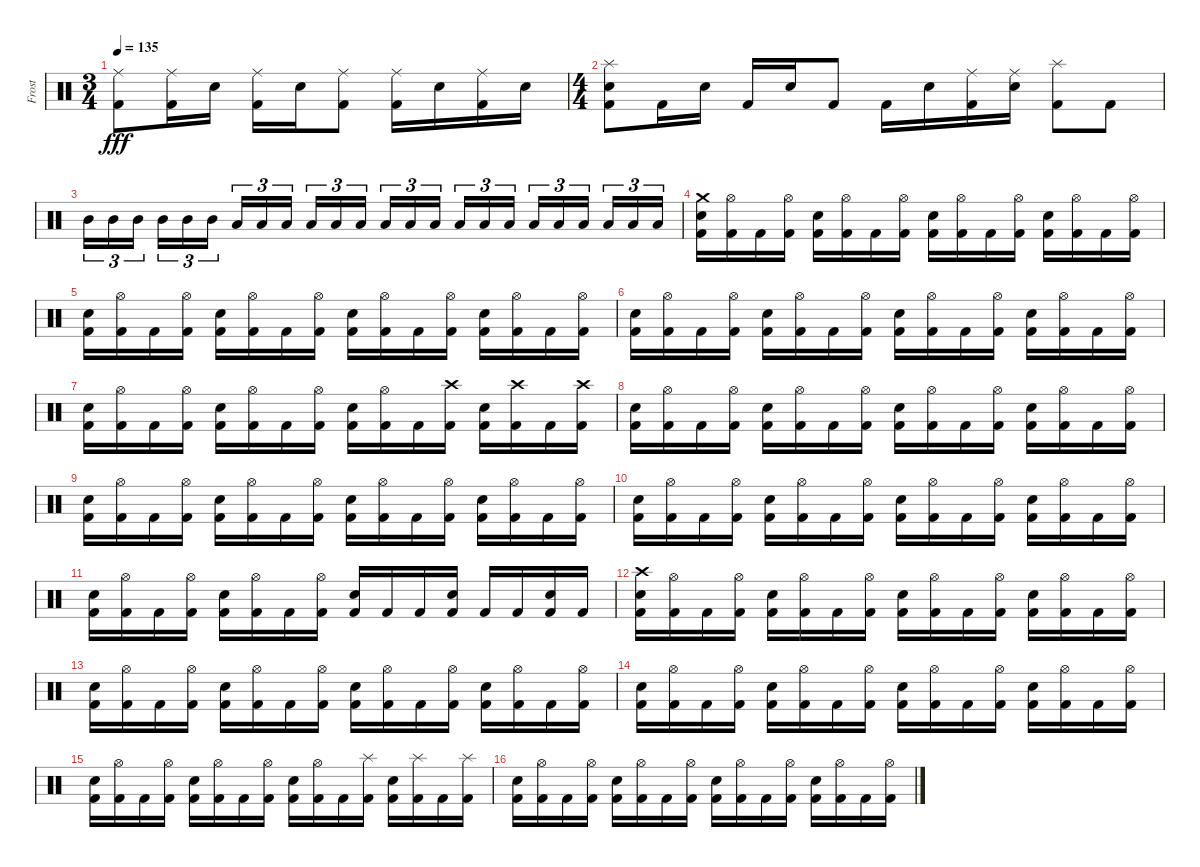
\track ("Frost" "Frost") {instrument percussion}
\staff {score}
\articulation defaults
\ts (3 4)
\tempo 135
\clef neutral
\ks c
("Ride (middle)" "Kick (hit) 2").8{dy fff} ("Ride (middle)" "Kick (hit) 2").16 "Electric Snare (hit)".16 ("Ride (middle)" "Kick (hit) 2").16 "Electric Snare (hit)".16 ("Ride (middle)" "Kick (hit) 2").8 ("Ride (middle)" "Kick (hit) 2").16 "Electric Snare (hit)".16 ("Ride (middle)" "Kick (hit) 2").16 "Electric Snare (hit)".16 |
\ts (4 4)
("Splash (hit)" "Electric Snare (hit)" "Kick (hit) 2").8 "Kick (hit) 2".16 "Electric Snare (hit)".16 "Kick (hit) 2".16 "Electric Snare (hit)".16 "Kick (hit) 2".8 "Kick (hit) 2".16 "Electric Snare (hit)".16 ("Ride (middle)" "Kick (hit) 2").16 ("Ride (middle)" "Electric Snare (hit)").16 ("Splash (hit)" "Kick (hit) 2").8 "Kick (hit) 2".8 |
"Mid Tom (hit)".16{tu (3 2)} "Mid Tom (hit)".16{tu (3 2)} "Mid Tom (hit)".16{tu (3 2) beam splitsecondary} "Mid Tom (hit)".16{tu (3 2)} "Mid Tom (hit)".16{tu (3 2)} "Mid Tom (hit)".16{tu (3 2)} "Low Tom (hit)".16{tu (3 2)} "Low Tom (hit)".16{tu (3 2)} "Low Tom (hit)".16{tu (3 2) beam splitsecondary} "Low Tom (hit)".16{tu (3 2)} "Low Tom (hit)".16{tu (3 2)} "Low Tom (hit)".16{tu (3 2)} "Low Floor Tom (hit)".16{tu (3 2)} "Low Floor Tom (hit)".16{tu (3 2)} "Low Floor Tom (hit)".16{tu (3 2) beam splitsecondary} "Low Floor Tom (hit)".16{tu (3 2)} "Low Floor Tom (hit)".16{tu (3 2)} "Low Floor Tom (hit)".16{tu (3 2)} "Low Floor Tom (hit)".16{tu (3 2)} "Low Floor Tom (hit)".16{tu (3 2)} "Low Floor Tom (hit)".16{tu (3 2) beam splitsecondary} "Low Floor Tom (hit)".16{tu (3 2)} "Low Floor Tom (hit)".16{tu (3 2)} "Low Floor Tom (hit)".16{tu (3 2)} |
("Crash medium (hit)" "Electric Snare (hit)" "Kick (hit) 2").16 ("Hi-Hat (open)" "Kick (hit) 2").16 "Kick (hit) 2".16 ("Hi-Hat (open)" "Kick (hit) 2").16 ("Electric Snare (hit)" "Kick (hit) 2").16 ("Hi-Hat (open)" "Kick (hit) 2").16 "Kick (hit) 2".16 ("Hi-Hat (open)" "Kick (hit) 2").16 ("Electric Snare (hit)" "Kick (hit) 2").16 ("Hi-Hat (open)" "Kick (hit) 2").16 "Kick (hit) 2".16 ("Hi-Hat (open)" "Kick (hit) 2").16 ("Electric Snare (hit)" "Kick (hit) 2").16 ("Hi-Hat (open)" "Kick (hit) 2").16 "Kick (hit) 2".16 ("Hi-Hat (open)" "Kick (hit) 2").16 |
("Electric Snare (hit)" "Kick (hit) 2").16 ("Hi-Hat (open)" "Kick (hit) 2").16 "Kick (hit) 2".16 ("Hi-Hat (open)" "Kick (hit) 2").16 ("Electric Snare (hit)" "Kick (hit) 2").16 ("Hi-Hat (open)" "Kick (hit) 2").16 "Kick (hit) 2".16 ("Hi-Hat (open)" "Kick (hit) 2").16 ("Electric Snare (hit)" "Kick (hit) 2").16 ("Hi-Hat (open)" "Kick (hit) 2").16 "Kick (hit) 2".16 ("Hi-Hat (open)" "Kick (hit) 2").16 ("Electric Snare (hit)" "Kick (hit) 2").16 ("Hi-Hat (open)" "Kick (hit) 2").16 "Kick (hit) 2".16 ("Hi-Hat (open)" "Kick (hit) 2").16 |
("Electric Snare (hit)" "Kick (hit) 2").16 ("Hi-Hat (open)" "Kick (hit) 2").16 "Kick (hit) 2".16 ("Hi-Hat (open)" "Kick (hit) 2").16 ("Electric Snare (hit)" "Kick (hit) 2").16 ("Hi-Hat (open)" "Kick (hit) 2").16 "Kick (hit) 2".16 ("Hi-Hat (open)" "Kick (hit) 2").16 ("Electric Snare (hit)" "Kick (hit) 2").16 ("Hi-Hat (open)" "Kick (hit) 2").16 "Kick (hit) 2".16 ("Hi-Hat (open)" "Kick (hit) 2").16 ("Electric Snare (hit)" "Kick (hit) 2").16 ("Hi-Hat (open)" "Kick (hit) 2").16 "Kick (hit) 2".16 ("Hi-Hat (open)" "Kick (hit) 2").16 |
("Electric Snare (hit)" "Kick (hit) 2").16 ("Hi-Hat (open)" "Kick (hit) 2").16 "Kick (hit) 2".16 ("Hi-Hat (open)" "Kick (hit) 2").16 ("Electric Snare (hit)" "Kick (hit) 2").16 ("Hi-Hat (open)" "Kick (hit) 2").16 "Kick (hit) 2".16 ("Hi-Hat (open)" "Kick (hit) 2").16 ("Electric Snare (hit)" "Kick (hit) 2").16 ("Hi-Hat (open)" "Kick (hit) 2").16 "Kick (hit) 2".16 ("Crash high (hit)" "Kick (hit) 2").16 ("Electric Snare (hit)" "Kick (hit) 2").16 ("Crash high (hit)" "Kick (hit) 2").16 "Kick (hit) 2".16 ("Crash high (hit)" "Kick (hit) 2").16 |
("Electric Snare (hit)" "Kick (hit) 2").16 ("Hi-Hat (open)" "Kick (hit) 2").16 "Kick (hit) 2".16 ("Hi-Hat (open)" "Kick (hit) 2").16 ("Electric Snare (hit)" "Kick (hit) 2").16 ("Hi-Hat (open)" "Kick (hit) 2").16 "Kick (hit) 2".16 ("Hi-Hat (open)" "Kick (hit) 2").16 ("Electric Snare (hit)" "Kick (hit) 2").16 ("Hi-Hat (open)" "Kick (hit) 2").16 "Kick (hit) 2".16 ("Hi-Hat (open)" "Kick (hit) 2").16 ("Electric Snare (hit)" "Kick (hit) 2").16 ("Hi-Hat (open)" "Kick (hit) 2").16 "Kick (hit) 2".16 ("Hi-Hat (open)" "Kick (hit) 2").16 |
("Electric Snare (hit)" "Kick (hit) 2").16 ("Hi-Hat (open)" "Kick (hit) 2").16 "Kick (hit) 2".16 ("Hi-Hat (open)" "Kick (hit) 2").16 ("Electric Snare (hit)" "Kick (hit) 2").16 ("Hi-Hat (open)" "Kick (hit) 2").16 "Kick (hit) 2".16 ("Hi-Hat (open)" "Kick (hit) 2").16 ("Electric Snare (hit)" "Kick (hit) 2").16 ("Hi-Hat (open)" "Kick (hit) 2").16 "Kick (hit) 2".16 ("Hi-Hat (open)" "Kick (hit) 2").16 ("Electric Snare (hit)" "Kick (hit) 2").16 ("Hi-Hat (open)" "Kick (hit) 2").16 "Kick (hit) 2".16 ("Hi-Hat (open)" "Kick (hit) 2").16 |
("Electric Snare (hit)" "Kick (hit) 2").16 ("Hi-Hat (open)" "Kick (hit) 2").16 "Kick (hit) 2".16 ("Hi-Hat (open)" "Kick (hit) 2").16 ("Electric Snare (hit)" "Kick (hit) 2").16 ("Hi-Hat (open)" "Kick (hit) 2").16 "Kick (hit) 2".16 ("Hi-Hat (open)" "Kick (hit) 2").16 ("Electric Snare (hit)" "Kick (hit) 2").16 ("Hi-Hat (open)" "Kick (hit) 2").16 "Kick (hit) 2".16 ("Hi-Hat (open)" "Kick (hit) 2").16 ("Electric Snare (hit)" "Kick (hit) 2").16 ("Hi-Hat (open)" "Kick (hit) 2").16 "Kick (hit) 2".16 ("Hi-Hat (open)" "Kick (hit) 2").16 |
("Electric Snare (hit)" "Kick (hit) 2").16 ("Hi-Hat (open)" "Kick (hit) 2").16 "Kick (hit) 2".16 ("Hi-Hat (open)" "Kick (hit) 2").16 ("Electric Snare (hit)" "Kick (hit) 2").16 ("Hi-Hat (open)" "Kick (hit) 2").16 "Kick (hit) 2".16 ("Hi-Hat (open)" "Kick (hit) 2").16 ("Electric Snare (hit)" "Kick (hit) 2").16 "Kick (hit) 2".16 "Kick (hit) 2".16 ("Electric Snare (hit)" "Kick (hit) 2").16 "Kick (hit) 2".16 "Kick (hit) 2".16 ("Electric Snare (hit)" "Kick (hit) 2").16 "Kick (hit) 2".16 |
("Crash high (hit)" "Electric Snare (hit)" "Kick (hit) 2").16 ("Hi-Hat (open)" "Kick (hit) 2").16 "Kick (hit) 2".16 ("Hi-Hat (open)" "Kick (hit) 2").16 ("Electric Snare (hit)" "Kick (hit) 2").16 ("Hi-Hat (open)" "Kick (hit) 2").16 "Kick (hit) 2".16 ("Hi-Hat (open)" "Kick (hit) 2").16 ("Electric Snare (hit)" "Kick (hit) 2").16 ("Hi-Hat (open)" "Kick (hit) 2").16 "Kick (hit) 2".16 ("Hi-Hat (open)" "Kick (hit) 2").16 ("Electric Snare (hit)" "Kick (hit) 2").16 ("Hi-Hat (open)" "Kick (hit) 2").16 "Kick (hit) 2".16 ("Hi-Hat (open)" "Kick (hit) 2").16 |
("Electric Snare (hit)" "Kick (hit) 2").16 ("Hi-Hat (open)" "Kick (hit) 2").16 "Kick (hit) 2".16 ("Hi-Hat (open)" "Kick (hit) 2").16 ("Electric Snare (hit)" "Kick (hit) 2").16 ("Hi-Hat (open)" "Kick (hit) 2").16 "Kick (hit) 2".16 ("Hi-Hat (open)" "Kick (hit) 2").16 ("Electric Snare (hit)" "Kick (hit) 2").16 ("Hi-Hat (open)" "Kick (hit) 2").16 "Kick (hit) 2".16 ("Hi-Hat (open)" "Kick (hit) 2").16 ("Electric Snare (hit)" "Kick (hit) 2").16 ("Hi-Hat (open)" "Kick (hit) 2").16 "Kick (hit) 2".16 ("Hi-Hat (open)" "Kick (hit) 2").16 |
("Electric Snare (hit)" "Kick (hit) 2").16 ("Hi-Hat (open)" "Kick (hit) 2").16 "Kick (hit) 2".16 ("Hi-Hat (open)" "Kick (hit) 2").16 ("Electric Snare (hit)" "Kick (hit) 2").16 ("Hi-Hat (open)" "Kick (hit) 2").16 "Kick (hit) 2".16 ("Hi-Hat (open)" "Kick (hit) 2").16 ("Electric Snare (hit)" "Kick (hit) 2").16 ("Hi-Hat (open)" "Kick (hit) 2").16 "Kick (hit) 2".16 ("Hi-Hat (open)" "Kick (hit) 2").16 ("Electric Snare (hit)" "Kick (hit) 2").16 ("Hi-Hat (open)" "Kick (hit) 2").16 "Kick (hit) 2".16 ("Hi-Hat (open)" "Kick (hit) 2").16 |
("Electric Snare (hit)" "Kick (hit) 2").16 ("Hi-Hat (open)" "Kick (hit) 2").16 "Kick (hit) 2".16 ("Hi-Hat (open)" "Kick (hit) 2").16 ("Electric Snare (hit)" "Kick (hit) 2").16 ("Hi-Hat (open)" "Kick (hit) 2").16 "Kick (hit) 2".16 ("Hi-Hat (open)" "Kick (hit) 2").16 ("Electric Snare (hit)" "Kick (hit) 2").16 ("Hi-Hat (open)" "Kick (hit) 2").16 "Kick (hit) 2".16 ("Splash (hit)" "Kick (hit) 2").16 ("Electric Snare (hit)" "Kick (hit) 2").16 ("Splash (hit)" "Kick (hit) 2").16 "Kick (hit) 2".16 ("Splash (hit)" "Kick (hit) 2").16 |
("Electric Snare (hit)" "Kick (hit) 2").16 ("Hi-Hat (open)" "Kick (hit) 2").16 "Kick (hit) 2".16 ("Hi-Hat (open)" "Kick (hit) 2").16 ("Electric Snare (hit)" "Kick (hit) 2").16 ("Hi-Hat (open)" "Kick (hit) 2").16 "Kick (hit) 2".16 ("Hi-Hat (open)" "Kick (hit) 2").16 ("Electric Snare (hit)" "Kick (hit) 2").16 ("Hi-Hat (open)" "Kick (hit) 2").16 "Kick (hit) 2".16 ("Hi-Hat (open)" "Kick (hit) 2").16 ("Electric Snare (hit)" "Kick (hit) 2").16 ("Hi-Hat (open)" "Kick (hit) 2").16 "Kick (hit) 2".16 ("Hi-Hat (open)" "Kick (hit) 2").16
